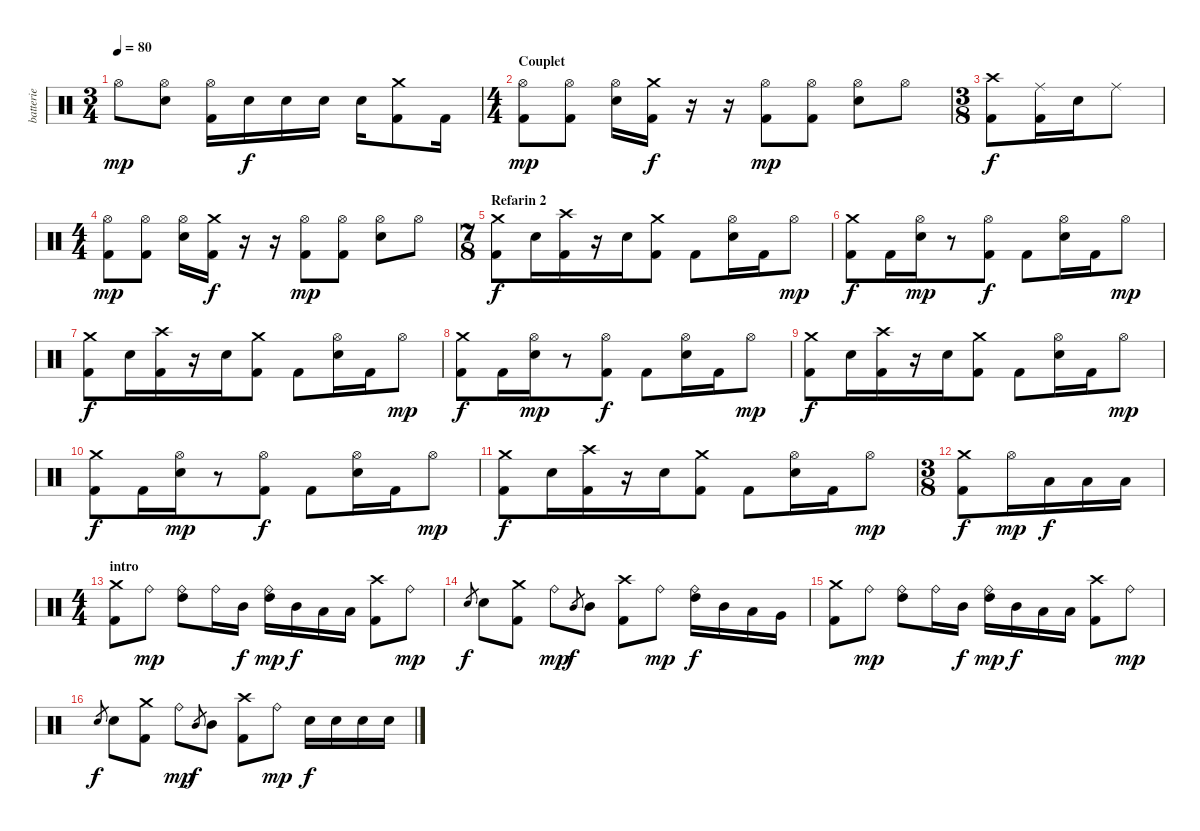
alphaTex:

\track ("batterie" "batterie") {instrument percussion}
\staff {score}
\articulation defaults
\ts (3 4)
\tempo 80
\clef neutral
\ks c "Hi-Hat (open)".8{dy mp}
("Hi-Hat (open)" "Electric Snare (hit)").8 ("Hi-Hat (open)" "Kick (hit) 2").16 "Electric Snare (hit)".16{dy f} "Electric Snare (hit)".16 "Electric Snare (hit)".16 "Electric Snare (hit)".16 ("Crash medium (hit)" "Kick (hit) 2").8 "Kick (hit) 2".16 |
\ts (4 4)
\section ("" "Couplet")
("Hi-Hat (open)" "Kick (hit) 2").8{dy mp} ("Hi-Hat (open)" "Kick (hit) 2").8 ("Hi-Hat (open)" "Electric Snare (hit)").16 ("Crash medium (hit)" "Kick (hit) 2").16{dy f} r.16 r.16 ("Hi-Hat (open)" "Kick (hit) 2").8{dy mp} ("Hi-Hat (open)" "Kick (hit) 2").8 ("Hi-Hat (open)" "Electric Snare (hit)").8 "Hi-Hat (open)".8 |
\ts (3 8)
("Crash high (hit)" "Kick (hit) 2").8{dy f} ("Ride (middle)" "Kick (hit) 2").16 "Electric Snare (hit)".16 "Ride (middle)".8 |
\ts (4 4)
("Hi-Hat (open)" "Kick (hit) 2").8{dy mp} ("Hi-Hat (open)" "Kick (hit) 2").8 ("Hi-Hat (open)" "Electric Snare (hit)").16 ("Crash medium (hit)" "Kick (hit) 2").16{dy f} r.16 r.16 ("Hi-Hat (open)" "Kick (hit) 2").8{dy mp} ("Hi-Hat (open)" "Kick (hit) 2").8 ("Hi-Hat (open)" "Electric Snare (hit)").8 "Hi-Hat (open)".8 |
\ts (7 8)
\section ("" "Refarin 2")
("Crash medium (hit)" "Kick (hit) 2").8{dy f} "Electric Snare (hit)".16 ("Crash high (hit)" "Kick (hit) 2").16 r.16 "Electric Snare (hit)".16 ("Crash medium (hit)" "Kick (hit) 2").8 "Kick (hit) 2".8 ("Hi-Hat (open)" "Electric Snare (hit)").16 "Kick (hit) 2".16 "Hi-Hat (open)".8{dy mp} |
("Crash medium (hit)" "Kick (hit) 2").8{dy f} "Kick (hit) 2".16 ("Hi-Hat (open)" "Electric Snare (hit)").16{dy mp} r.8 ("Hi-Hat (open)" "Kick (hit) 2").8{dy f} "Kick (hit) 2".8 ("Hi-Hat (open)" "Electric Snare (hit)").16 "Kick (hit) 2".16 "Hi-Hat (open)".8{dy mp} |
("Crash medium (hit)" "Kick (hit) 2").8{dy f} "Electric Snare (hit)".16 ("Crash high (hit)" "Kick (hit) 2").16 r.16 "Electric Snare (hit)".16 ("Crash medium (hit)" "Kick (hit) 2").8 "Kick (hit) 2".8 ("Hi-Hat (open)" "Electric Snare (hit)").16 "Kick (hit) 2".16 "Hi-Hat (open)".8{dy mp} |
("Crash medium (hit)" "Kick (hit) 2").8{dy f} "Kick (hit) 2".16 ("Hi-Hat (open)" "Electric Snare (hit)").16{dy mp} r.8 ("Hi-Hat (open)" "Kick (hit) 2").8{dy f} "Kick (hit) 2".8 ("Hi-Hat (open)" "Electric Snare (hit)").16 "Kick (hit) 2".16 "Hi-Hat (open)".8{dy mp} |
("Crash medium (hit)" "Kick (hit) 2").8{dy f} "Electric Snare (hit)".16 ("Crash high (hit)" "Kick (hit) 2").16 r.16 "Electric Snare (hit)".16 ("Crash medium (hit)" "Kick (hit) 2").8 "Kick (hit) 2".8 ("Hi-Hat (open)" "Electric Snare (hit)").16 "Kick (hit) 2".16 "Hi-Hat (open)".8{dy mp} |
("Crash medium (hit)" "Kick (hit) 2").8{dy f} "Kick (hit) 2".16 ("Hi-Hat (open)" "Electric Snare (hit)").16{dy mp} r.8 ("Hi-Hat (open)" "Kick (hit) 2").8{dy f} "Kick (hit) 2".8 ("Hi-Hat (open)" "Electric Snare (hit)").16 "Kick (hit) 2".16 "Hi-Hat (open)".8{dy mp} |
("Crash medium (hit)" "Kick (hit) 2").8{dy f} "Electric Snare (hit)".16 ("Crash high (hit)" "Kick (hit) 2").16 r.16 "Electric Snare (hit)".16 ("Crash medium (hit)" "Kick (hit) 2").8 "Kick (hit) 2".8 ("Hi-Hat (open)" "Electric Snare (hit)").16 "Kick (hit) 2".16 "Hi-Hat (open)".8{dy mp} |
\ts (3 8)
("Crash medium (hit)" "Kick (hit) 2").8{dy f} "Hi-Hat (open)".16{dy mp} "Low Tom (hit)".16{dy f} "Low Tom (hit)".16 "Low Tom (hit)".16 |
\ts (4 4)
\section ("" "intro")
("Crash medium (hit)" "Kick (hit) 2").8 "Ride (bell)".8{dy mp} ("Ride (bell)" "High Tom (hit)").8 "Ride (bell)".16 "Mid Tom (hit)".16{dy f} ("Ride (bell)" "High Tom (hit)").16{dy mp} "Mid Tom (hit)".16{dy f} "Low Tom (hit)".16 "Low Tom (hit)".16 ("Crash high (hit)" "Kick (hit) 2").8 "Ride (bell)".8{dy mp} |
"Electric Snare (hit)".8{gr dy f} "Electric Snare (hit)".8 ("Crash medium (hit)" "Kick (hit) 2").8 "Ride (bell)".8{dy mp} "Mid Tom (hit)".8{gr dy f} "Mid Tom (hit)".8 ("Crash high (hit)" "Kick (hit) 2").8 "Ride (bell)".8{dy mp} ("Ride (bell)" "High Tom (hit)").16{dy f} "Mid Tom (hit)".16 "Low Tom (hit)".16 "Very Low Tom (hit)".16 |
("Crash medium (hit)" "Kick (hit) 2").8 "Ride (bell)".8{dy mp} ("Ride (bell)" "High Tom (hit)").8 "Ride (bell)".16 "Mid Tom (hit)".16{dy f} ("Ride (bell)" "High Tom (hit)").16{dy mp} "Mid Tom (hit)".16{dy f} "Low Tom (hit)".16 "Low Tom (hit)".16 ("Crash high (hit)" "Kick (hit) 2").8 "Ride (bell)".8{dy mp} |
"Electric Snare (hit)".8{gr dy f} "Electric Snare (hit)".8 ("Crash medium (hit)" "Kick (hit) 2").8 "Ride (bell)".8{dy mp} "Mid Tom (hit)".8{gr dy f} "Mid Tom (hit)".8 ("Crash high (hit)" "Kick (hit) 2").8 "Ride (bell)".8{dy mp} "Electric Snare (hit)".16{dy f} "Electric Snare (hit)".16 "Electric Snare (hit)".16 "Electric Snare (hit)".16
